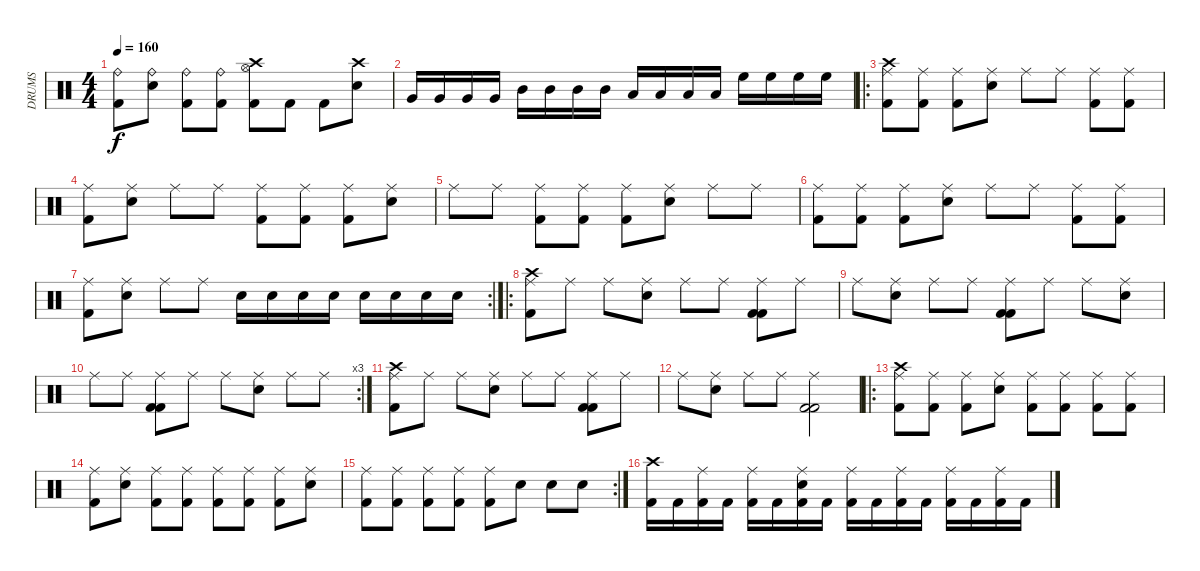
\track ("DRUMS" "DRUMS") {instrument percussion}
\staff {score}
\articulation defaults
\ts (4 4)
\tempo 160
\clef neutral
\ks c
("Ride (bell)" "Kick (hit) 2").8{dy f} ("Ride (bell)" "Snare (hit) 2").8 ("Ride (bell)" "Kick (hit) 2").8 ("Ride (bell)" "Kick (hit) 2").8 ("Crash high (hit)" "Hi-Hat (open)" "Kick (hit) 2").8 "Kick (hit) 2".8 "Kick (hit) 2".8 ("Crash high (hit)" "Snare (hit) 2").8 |
"Very Low Tom (hit)".16 "Very Low Tom (hit)".16 "Very Low Tom (hit)".16 "Very Low Tom (hit)".16 "Mid Tom (hit)".16 "Mid Tom (hit)".16 "Mid Tom (hit)".16 "Mid Tom (hit)".16 "Low Tom (hit)".16 "Low Tom (hit)".16 "Low Tom (hit)".16 "Low Tom (hit)".16 "High Floor Tom (hit)".16 "High Floor Tom (hit)".16 "High Floor Tom (hit)".16 "High Floor Tom (hit)".16 |
\ro
("Crash high (hit)" "Kick (hit) 2" "Ride (middle)").8 ("Kick (hit) 2" "Ride (middle)").8 ("Kick (hit) 2" "Ride (middle)").8 ("Snare (hit) 2" "Ride (middle)").8 "Ride (middle)".8 "Ride (middle)".8 ("Kick (hit) 2" "Ride (middle)").8 ("Kick (hit) 2" "Ride (middle)").8 |
("Kick (hit) 2" "Ride (middle)").8 ("Snare (hit) 2" "Ride (middle)").8 "Ride (middle)".8 "Ride (middle)".8 ("Kick (hit) 2" "Ride (middle)").8 ("Kick (hit) 2" "Ride (middle)").8 ("Kick (hit) 2" "Ride (middle)").8 ("Snare (hit) 2" "Ride (middle)").8 |
"Ride (middle)".8 "Ride (middle)".8 ("Kick (hit) 2" "Ride (middle)").8 ("Kick (hit) 2" "Ride (middle)").8 ("Kick (hit) 2" "Ride (middle)").8 ("Snare (hit) 2" "Ride (middle)").8 "Ride (middle)".8 "Ride (middle)".8 |
("Kick (hit) 2" "Ride (middle)").8 ("Kick (hit) 2" "Ride (middle)").8 ("Kick (hit) 2" "Ride (middle)").8 ("Snare (hit) 2" "Ride (middle)").8 "Ride (middle)".8 "Ride (middle)".8 ("Kick (hit) 2" "Ride (middle)").8 ("Kick (hit) 2" "Ride (middle)").8 |
\rc 2
("Kick (hit) 2" "Ride (middle)").8 ("Snare (hit) 2" "Ride (middle)").8 "Ride (middle)".8 "Ride (middle)".8 "Snare (hit) 2".16 "Snare (hit) 2".16 "Snare (hit) 2".16 "Snare (hit) 2".16 "Snare (hit) 2".16 "Snare (hit) 2".16 "Snare (hit) 2".16 "Snare (hit) 2".16 |
\ro
("Crash high (hit)" "Kick (hit) 2" "Ride (middle)").8 "Ride (middle)".8 "Ride (middle)".8 ("Snare (hit) 2" "Ride (middle)").8 "Ride (middle)".8 "Ride (middle)".8 ("Kick (hit) 2" "Kick (hit) 2" "Ride (middle)").8 "Ride (middle)".8 |
"Ride (middle)".8 ("Snare (hit) 2" "Ride (middle)").8 "Ride (middle)".8 "Ride (middle)".8 ("Kick (hit) 2" "Kick (hit) 2" "Ride (middle)").8 "Ride (middle)".8 "Ride (middle)".8 ("Snare (hit) 2" "Ride (middle)").8 |
\rc 3 "Ride (middle)".8 "Ride (middle)".8
("Kick (hit) 2" "Kick (hit) 2" "Ride (middle)").8 "Ride (middle)".8 "Ride (middle)".8 ("Snare (hit) 2" "Ride (middle)").8 "Ride (middle)".8 "Ride (middle)".8 |
("Crash high (hit)" "Kick (hit) 2" "Ride (middle)").8 "Ride (middle)".8 "Ride (middle)".8 ("Snare (hit) 2" "Ride (middle)").8 "Ride (middle)".8 "Ride (middle)".8 ("Kick (hit) 2" "Kick (hit) 2" "Ride (middle)").8 "Ride (middle)".8 |
"Ride (middle)".8 ("Snare (hit) 2" "Ride (middle)").8 "Ride (middle)".8 "Ride (middle)".8 ("Kick (hit) 2" "Kick (hit) 2" "Ride (middle)").2 |
\ro
("Crash high (hit)" "Ride (middle)" "Kick (hit) 2").8 ("Ride (middle)" "Kick (hit) 2").8 ("Ride (middle)" "Kick (hit) 2").8 ("Ride (middle)" "Snare (hit) 2").8 ("Ride (middle)" "Kick (hit) 2").8 ("Ride (middle)" "Kick (hit) 2").8 ("Ride (middle)" "Kick (hit) 2").8 ("Ride (middle)" "Kick (hit) 2").8 |
("Ride (middle)" "Kick (hit) 2").8 ("Ride (middle)" "Snare (hit) 2").8 ("Ride (middle)" "Kick (hit) 2").8 ("Ride (middle)" "Kick (hit) 2").8 ("Ride (middle)" "Kick (hit) 2").8 ("Ride (middle)" "Kick (hit) 2").8 ("Ride (middle)" "Kick (hit) 2").8 ("Ride (middle)" "Snare (hit) 2").8 |
\rc 2
("Ride (middle)" "Kick (hit) 2").8 ("Ride (middle)" "Kick (hit) 2").8 ("Ride (middle)" "Kick (hit) 2").8 ("Ride (middle)" "Kick (hit) 2").8 ("Ride (middle)" "Kick (hit) 2").8 "Snare (hit) 2".8 "Snare (hit) 2".8 "Snare (hit) 2".8 |
("Crash high (hit)" "Kick (hit) 2").16 "Kick (hit) 2".16 ("Ride (middle)" "Kick (hit) 2").16 "Kick (hit) 2".16 ("Ride (middle)" "Kick (hit) 2").16 "Kick (hit) 2".16 ("Ride (middle)" "Snare (hit) 2" "Kick (hit) 2").16 "Kick (hit) 2".16 ("Ride (middle)" "Kick (hit) 2").16 "Kick (hit) 2".16 ("Ride (middle)" "Kick (hit) 2").16 "Kick (hit) 2".16 ("Ride (middle)" "Kick (hit) 2").16 "Kick (hit) 2".16 ("Ride (middle)" "Kick (hit) 2").16 "Kick (hit) 2".16
